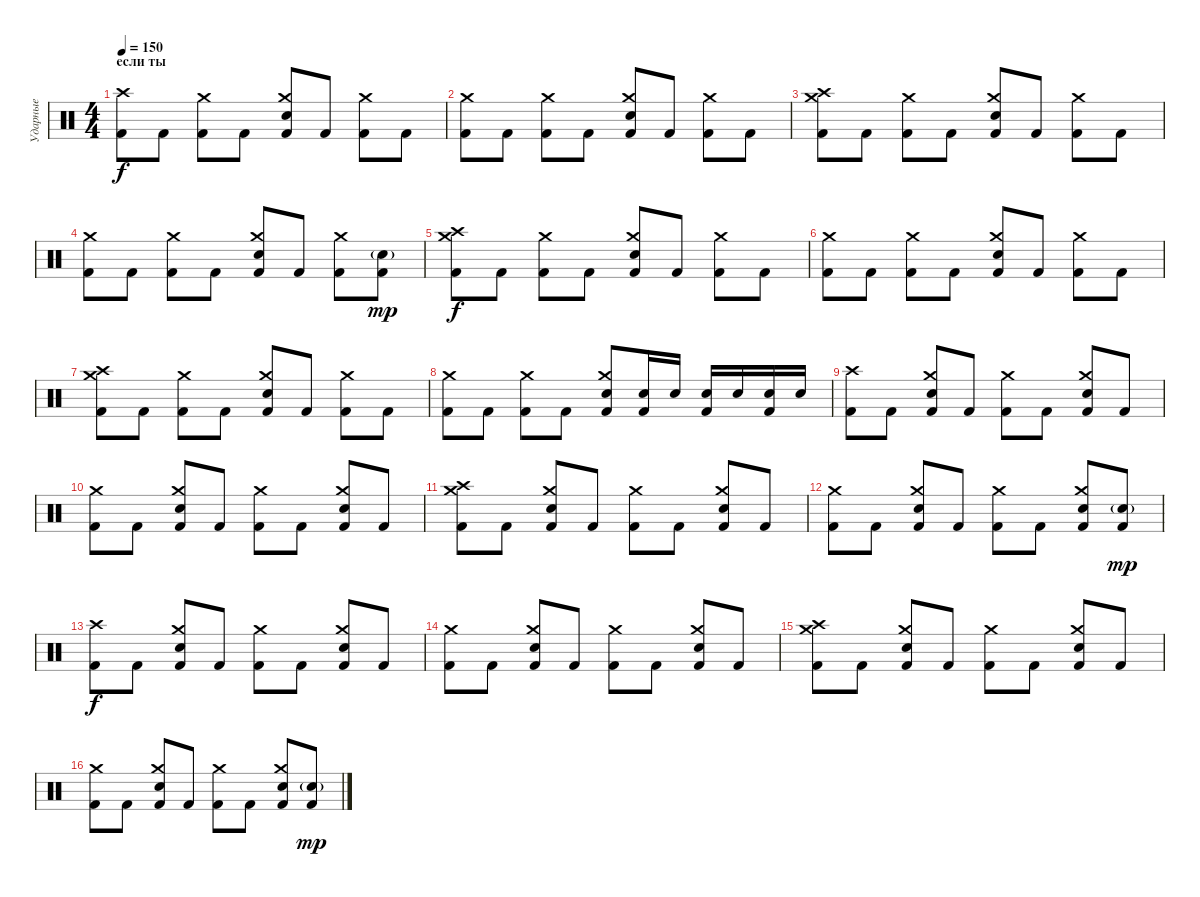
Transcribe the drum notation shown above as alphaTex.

\track ("Ударные" "Ударные") {instrument percussion}
\staff {score}
\articulation defaults
\ts (4 4)
\section ("" "если ты")
\tempo 150
\clef neutral
\ks c
("Crash high (hit)" "Kick (hit) 2").8{dy f} "Kick (hit) 2".8 ("Crash medium (hit)" "Kick (hit) 2").8 "Kick (hit) 2".8 ("Crash medium (hit)" "Electric Snare (hit)" "Kick (hit) 2").8 "Kick (hit) 2".8 ("Crash medium (hit)" "Kick (hit) 2").8 "Kick (hit) 2".8 |
("Crash medium (hit)" "Kick (hit) 2").8 "Kick (hit) 2".8 ("Crash medium (hit)" "Kick (hit) 2").8 "Kick (hit) 2".8 ("Crash medium (hit)" "Electric Snare (hit)" "Kick (hit) 2").8 "Kick (hit) 2".8 ("Crash medium (hit)" "Kick (hit) 2").8 "Kick (hit) 2".8 |
("Crash medium (hit)" "Crash high (hit)" "Kick (hit) 2").8 "Kick (hit) 2".8 ("Crash medium (hit)" "Kick (hit) 2").8 "Kick (hit) 2".8 ("Crash medium (hit)" "Electric Snare (hit)" "Kick (hit) 2").8 "Kick (hit) 2".8 ("Crash medium (hit)" "Kick (hit) 2").8 "Kick (hit) 2".8 |
("Crash medium (hit)" "Kick (hit) 2").8 "Kick (hit) 2".8 ("Crash medium (hit)" "Kick (hit) 2").8 "Kick (hit) 2".8 ("Crash medium (hit)" "Electric Snare (hit)" "Kick (hit) 2").8 "Kick (hit) 2".8 ("Crash medium (hit)" "Kick (hit) 2").8 ("Electric Snare (hit)"{g} "Kick (hit) 2").8{dy mp} |
("Crash high (hit)" "Crash medium (hit)" "Kick (hit) 2").8{dy f} "Kick (hit) 2".8 ("Crash medium (hit)" "Kick (hit) 2").8 "Kick (hit) 2".8 ("Crash medium (hit)" "Electric Snare (hit)" "Kick (hit) 2").8 "Kick (hit) 2".8 ("Crash medium (hit)" "Kick (hit) 2").8 "Kick (hit) 2".8 |
("Crash medium (hit)" "Kick (hit) 2").8 "Kick (hit) 2".8 ("Crash medium (hit)" "Kick (hit) 2").8 "Kick (hit) 2".8 ("Crash medium (hit)" "Electric Snare (hit)" "Kick (hit) 2").8 "Kick (hit) 2".8 ("Crash medium (hit)" "Kick (hit) 2").8 "Kick (hit) 2".8 |
("Crash medium (hit)" "Crash high (hit)" "Kick (hit) 2").8 "Kick (hit) 2".8 ("Crash medium (hit)" "Kick (hit) 2").8 "Kick (hit) 2".8 ("Crash medium (hit)" "Electric Snare (hit)" "Kick (hit) 2").8 "Kick (hit) 2".8 ("Crash medium (hit)" "Kick (hit) 2").8 "Kick (hit) 2".8 |
("Crash medium (hit)" "Kick (hit) 2").8 "Kick (hit) 2".8 ("Crash medium (hit)" "Kick (hit) 2").8 "Kick (hit) 2".8 ("Crash medium (hit)" "Electric Snare (hit)" "Kick (hit) 2").8 ("Electric Snare (hit)" "Kick (hit) 2").16 "Electric Snare (hit)".16 ("Electric Snare (hit)" "Kick (hit) 2").16 "Electric Snare (hit)".16 ("Electric Snare (hit)" "Kick (hit) 2").16 "Electric Snare (hit)".16 |
("Crash high (hit)" "Kick (hit) 2").8 "Kick (hit) 2".8 ("Crash medium (hit)" "Electric Snare (hit)" "Kick (hit) 2").8 "Kick (hit) 2".8 ("Crash medium (hit)" "Kick (hit) 2").8 "Kick (hit) 2".8 ("Crash medium (hit)" "Electric Snare (hit)" "Kick (hit) 2").8 "Kick (hit) 2".8 |
("Crash medium (hit)" "Kick (hit) 2").8 "Kick (hit) 2".8 ("Crash medium (hit)" "Electric Snare (hit)" "Kick (hit) 2").8 "Kick (hit) 2".8 ("Crash medium (hit)" "Kick (hit) 2").8 "Kick (hit) 2".8 ("Crash medium (hit)" "Electric Snare (hit)" "Kick (hit) 2").8 "Kick (hit) 2".8 |
("Crash medium (hit)" "Crash high (hit)" "Kick (hit) 2").8 "Kick (hit) 2".8 ("Crash medium (hit)" "Electric Snare (hit)" "Kick (hit) 2").8 "Kick (hit) 2".8 ("Crash medium (hit)" "Kick (hit) 2").8 "Kick (hit) 2".8 ("Crash medium (hit)" "Electric Snare (hit)" "Kick (hit) 2").8 "Kick (hit) 2".8 |
("Crash medium (hit)" "Kick (hit) 2").8 "Kick (hit) 2".8 ("Crash medium (hit)" "Electric Snare (hit)" "Kick (hit) 2").8 "Kick (hit) 2".8 ("Crash medium (hit)" "Kick (hit) 2").8 "Kick (hit) 2".8 ("Crash medium (hit)" "Electric Snare (hit)" "Kick (hit) 2").8 ("Electric Snare (hit)"{g} "Kick (hit) 2").8{dy mp} |
("Crash high (hit)" "Kick (hit) 2").8{dy f} "Kick (hit) 2".8 ("Crash medium (hit)" "Electric Snare (hit)" "Kick (hit) 2").8 "Kick (hit) 2".8 ("Crash medium (hit)" "Kick (hit) 2").8 "Kick (hit) 2".8 ("Crash medium (hit)" "Electric Snare (hit)" "Kick (hit) 2").8 "Kick (hit) 2".8 |
("Crash medium (hit)" "Kick (hit) 2").8 "Kick (hit) 2".8 ("Crash medium (hit)" "Electric Snare (hit)" "Kick (hit) 2").8 "Kick (hit) 2".8 ("Crash medium (hit)" "Kick (hit) 2").8 "Kick (hit) 2".8 ("Crash medium (hit)" "Electric Snare (hit)" "Kick (hit) 2").8 "Kick (hit) 2".8 |
("Crash medium (hit)" "Crash high (hit)" "Kick (hit) 2").8 "Kick (hit) 2".8 ("Crash medium (hit)" "Electric Snare (hit)" "Kick (hit) 2").8 "Kick (hit) 2".8 ("Crash medium (hit)" "Kick (hit) 2").8 "Kick (hit) 2".8 ("Crash medium (hit)" "Electric Snare (hit)" "Kick (hit) 2").8 "Kick (hit) 2".8 |
("Crash medium (hit)" "Kick (hit) 2").8 "Kick (hit) 2".8 ("Crash medium (hit)" "Electric Snare (hit)" "Kick (hit) 2").8 "Kick (hit) 2".8 ("Crash medium (hit)" "Kick (hit) 2").8 "Kick (hit) 2".8 ("Crash medium (hit)" "Electric Snare (hit)" "Kick (hit) 2").8 ("Electric Snare (hit)"{g} "Kick (hit) 2").8{dy mp}
